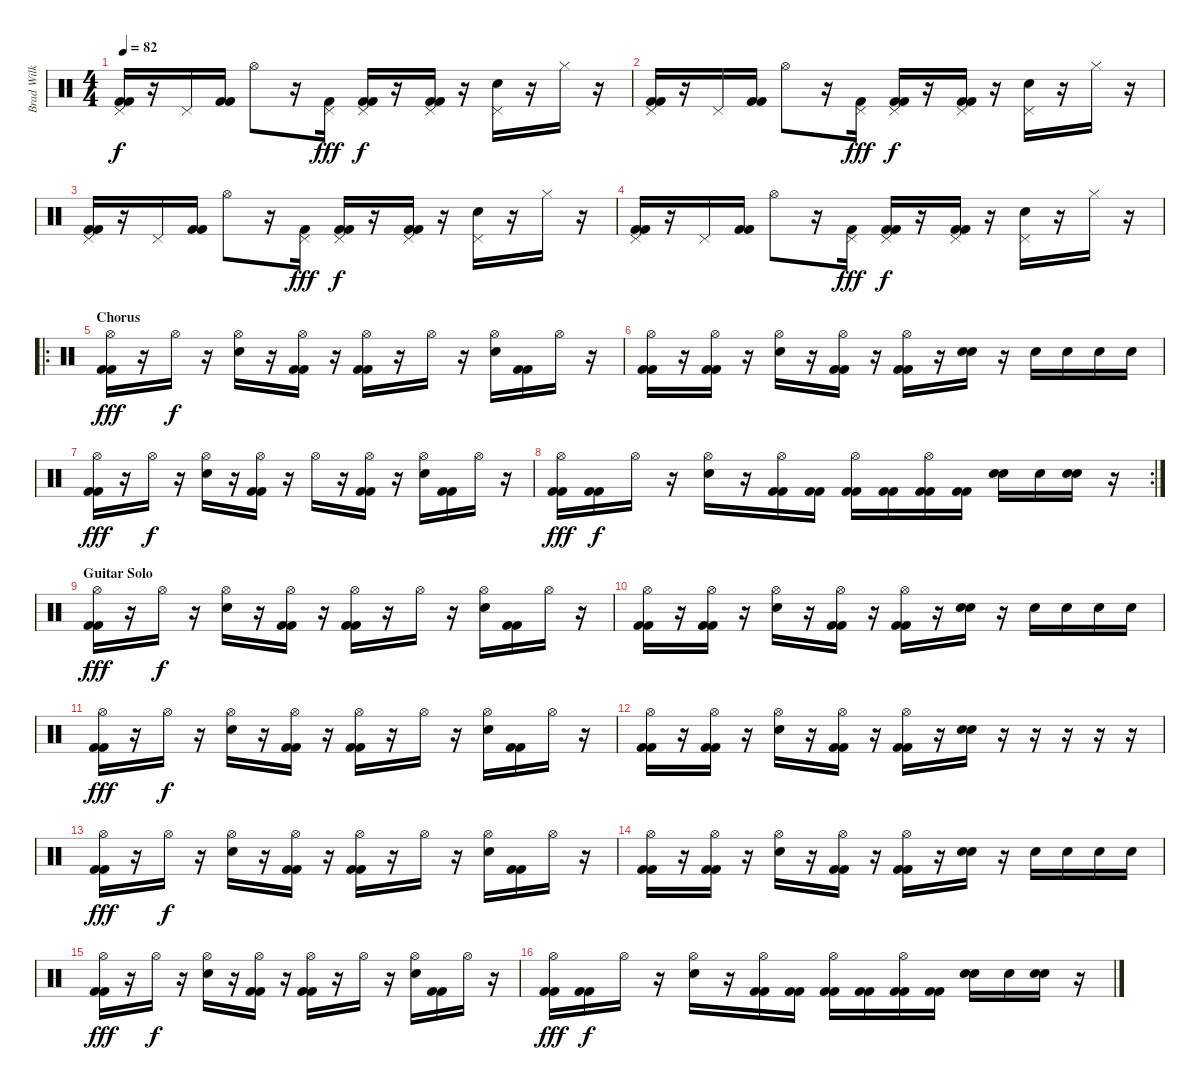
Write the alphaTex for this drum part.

\track ("Brad Wilk" "Brad Wilk") {instrument percussion}
\staff {score}
\articulation defaults
\ts (4 4)
\tempo 82
\clef neutral
\ks c
("Pedal Hi-Hat (hit)" "Kick (hit) 2" "Kick (hit) 2").16{dy f} r.16 "Pedal Hi-Hat (hit)".16 ("Kick (hit) 2" "Kick (hit) 2").16 "Hi-Hat (open)".8 r.16 ("Pedal Hi-Hat (hit)" "Kick (hit) 2").16{dy fff} ("Pedal Hi-Hat (hit)" "Kick (hit) 2" "Kick (hit) 2").16{dy f} r.16 ("Pedal Hi-Hat (hit)" "Kick (hit) 2" "Kick (hit) 2").16 r.16 ("Pedal Hi-Hat (hit)" "Snare (hit) 2").16 r.16 "Hi-Hat (closed)".16 r.16 |
("Pedal Hi-Hat (hit)" "Kick (hit) 2" "Kick (hit) 2").16 r.16 "Pedal Hi-Hat (hit)".16 ("Kick (hit) 2" "Kick (hit) 2").16 "Hi-Hat (open)".8 r.16 ("Pedal Hi-Hat (hit)" "Kick (hit) 2").16{dy fff} ("Pedal Hi-Hat (hit)" "Kick (hit) 2" "Kick (hit) 2").16{dy f} r.16 ("Pedal Hi-Hat (hit)" "Kick (hit) 2" "Kick (hit) 2").16 r.16 ("Pedal Hi-Hat (hit)" "Snare (hit) 2").16 r.16 "Hi-Hat (closed)".16 r.16 |
("Pedal Hi-Hat (hit)" "Kick (hit) 2" "Kick (hit) 2").16 r.16 "Pedal Hi-Hat (hit)".16 ("Kick (hit) 2" "Kick (hit) 2").16 "Hi-Hat (open)".8 r.16 ("Pedal Hi-Hat (hit)" "Kick (hit) 2").16{dy fff} ("Pedal Hi-Hat (hit)" "Kick (hit) 2" "Kick (hit) 2").16{dy f} r.16 ("Pedal Hi-Hat (hit)" "Kick (hit) 2" "Kick (hit) 2").16 r.16 ("Pedal Hi-Hat (hit)" "Snare (hit) 2").16 r.16 "Hi-Hat (closed)".16 r.16 |
("Pedal Hi-Hat (hit)" "Kick (hit) 2" "Kick (hit) 2").16 r.16 "Pedal Hi-Hat (hit)".16 ("Kick (hit) 2" "Kick (hit) 2").16 "Hi-Hat (open)".8 r.16 ("Pedal Hi-Hat (hit)" "Kick (hit) 2").16{dy fff} ("Pedal Hi-Hat (hit)" "Kick (hit) 2" "Kick (hit) 2").16{dy f} r.16 ("Pedal Hi-Hat (hit)" "Kick (hit) 2" "Kick (hit) 2").16 r.16 ("Pedal Hi-Hat (hit)" "Snare (hit) 2").16 r.16 "Hi-Hat (closed)".16 r.16 |
\ro
\section ("" "Chorus")
("Hi-Hat (open)" "Kick (hit) 2" "Kick (hit) 2").16{dy fff} r.16 "Hi-Hat (open)".16{dy f} r.16 ("Hi-Hat (open)" "Snare (hit) 2").16 r.16 ("Hi-Hat (open)" "Kick (hit) 2" "Kick (hit) 2").16 r.16 ("Hi-Hat (open)" "Kick (hit) 2" "Kick (hit) 2").16 r.16 "Hi-Hat (open)".16 r.16 ("Hi-Hat (open)" "Snare (hit) 2").16 ("Kick (hit) 2" "Kick (hit) 2").16 "Hi-Hat (open)".16 r.16 |
("Hi-Hat (open)" "Kick (hit) 2" "Kick (hit) 2").16 r.16 ("Hi-Hat (open)" "Kick (hit) 2" "Kick (hit) 2").16 r.16 ("Hi-Hat (open)" "Snare (hit) 2").16 r.16 ("Hi-Hat (open)" "Kick (hit) 2" "Kick (hit) 2").16 r.16 ("Hi-Hat (open)" "Kick (hit) 2" "Kick (hit) 2").16 r.16 ("Electric Snare (hit)" "Electric Snare (hit)").16{bd 240} r.16 "Electric Snare (hit)".16 "Electric Snare (hit)".16 "Electric Snare (hit)".16 "Electric Snare (hit)".16 |
("Hi-Hat (open)" "Kick (hit) 2" "Kick (hit) 2").16{dy fff} r.16 "Hi-Hat (open)".16{dy f} r.16 ("Hi-Hat (open)" "Snare (hit) 2").16 r.16 ("Hi-Hat (open)" "Kick (hit) 2" "Kick (hit) 2").16 r.16 "Hi-Hat (open)".16 r.16 ("Hi-Hat (open)" "Kick (hit) 2" "Kick (hit) 2").16 r.16 ("Hi-Hat (open)" "Snare (hit) 2").16 ("Kick (hit) 2" "Kick (hit) 2").16 "Hi-Hat (open)".16 r.16 |
\rc 2
("Hi-Hat (open)" "Kick (hit) 2" "Kick (hit) 2").16{dy fff} ("Kick (hit) 2" "Kick (hit) 2").16{dy f} "Hi-Hat (open)".16 r.16 ("Hi-Hat (open)" "Snare (hit) 2").16 r.16 ("Hi-Hat (open)" "Kick (hit) 2" "Kick (hit) 2").16 ("Kick (hit) 2" "Kick (hit) 2").16 ("Hi-Hat (open)" "Kick (hit) 2" "Kick (hit) 2").16 ("Kick (hit) 2" "Kick (hit) 2").16 ("Hi-Hat (open)" "Kick (hit) 2" "Kick (hit) 2").16 ("Kick (hit) 2" "Kick (hit) 2").16 ("Electric Snare (hit)" "Electric Snare (hit)").16{bd 240} "Electric Snare (hit)".16 ("Snare (hit) 2" "Snare (hit) 2").16 r.16 |
\section ("" "Guitar Solo")
("Hi-Hat (open)" "Kick (hit) 2" "Kick (hit) 2").16{dy fff} r.16 "Hi-Hat (open)".16{dy f} r.16 ("Hi-Hat (open)" "Snare (hit) 2").16 r.16 ("Hi-Hat (open)" "Kick (hit) 2" "Kick (hit) 2").16 r.16 ("Hi-Hat (open)" "Kick (hit) 2" "Kick (hit) 2").16 r.16 "Hi-Hat (open)".16 r.16 ("Hi-Hat (open)" "Snare (hit) 2").16 ("Kick (hit) 2" "Kick (hit) 2").16 "Hi-Hat (open)".16 r.16 |
("Hi-Hat (open)" "Kick (hit) 2" "Kick (hit) 2").16 r.16 ("Hi-Hat (open)" "Kick (hit) 2" "Kick (hit) 2").16 r.16 ("Hi-Hat (open)" "Snare (hit) 2").16 r.16 ("Hi-Hat (open)" "Kick (hit) 2" "Kick (hit) 2").16 r.16 ("Hi-Hat (open)" "Kick (hit) 2" "Kick (hit) 2").16 r.16 ("Electric Snare (hit)" "Electric Snare (hit)").16{bd 240} r.16 "Electric Snare (hit)".16 "Electric Snare (hit)".16 "Electric Snare (hit)".16 "Electric Snare (hit)".16 |
("Hi-Hat (open)" "Kick (hit) 2" "Kick (hit) 2").16{dy fff} r.16 "Hi-Hat (open)".16{dy f} r.16 ("Hi-Hat (open)" "Snare (hit) 2").16 r.16 ("Hi-Hat (open)" "Kick (hit) 2" "Kick (hit) 2").16 r.16 ("Hi-Hat (open)" "Kick (hit) 2" "Kick (hit) 2").16 r.16 "Hi-Hat (open)".16 r.16 ("Hi-Hat (open)" "Snare (hit) 2").16 ("Kick (hit) 2" "Kick (hit) 2").16 "Hi-Hat (open)".16 r.16 |
("Hi-Hat (open)" "Kick (hit) 2" "Kick (hit) 2").16 r.16 ("Hi-Hat (open)" "Kick (hit) 2" "Kick (hit) 2").16 r.16 ("Hi-Hat (open)" "Snare (hit) 2").16 r.16 ("Hi-Hat (open)" "Kick (hit) 2" "Kick (hit) 2").16 r.16 ("Hi-Hat (open)" "Kick (hit) 2" "Kick (hit) 2").16 r.16 ("Electric Snare (hit)" "Electric Snare (hit)").16{bd 240} r.16 r.16 r.16 r.16 r.16 |
("Hi-Hat (open)" "Kick (hit) 2" "Kick (hit) 2").16{dy fff} r.16 "Hi-Hat (open)".16{dy f} r.16 ("Hi-Hat (open)" "Snare (hit) 2").16 r.16 ("Hi-Hat (open)" "Kick (hit) 2" "Kick (hit) 2").16 r.16 ("Hi-Hat (open)" "Kick (hit) 2" "Kick (hit) 2").16 r.16 "Hi-Hat (open)".16 r.16 ("Hi-Hat (open)" "Snare (hit) 2").16 ("Kick (hit) 2" "Kick (hit) 2").16 "Hi-Hat (open)".16 r.16 |
("Hi-Hat (open)" "Kick (hit) 2" "Kick (hit) 2").16 r.16 ("Hi-Hat (open)" "Kick (hit) 2" "Kick (hit) 2").16 r.16 ("Hi-Hat (open)" "Snare (hit) 2").16 r.16 ("Hi-Hat (open)" "Kick (hit) 2" "Kick (hit) 2").16 r.16 ("Hi-Hat (open)" "Kick (hit) 2" "Kick (hit) 2").16 r.16 ("Electric Snare (hit)" "Electric Snare (hit)").16{bd 240} r.16 "Electric Snare (hit)".16 "Electric Snare (hit)".16 "Electric Snare (hit)".16 "Electric Snare (hit)".16 |
("Hi-Hat (open)" "Kick (hit) 2" "Kick (hit) 2").16{dy fff} r.16 "Hi-Hat (open)".16{dy f} r.16 ("Hi-Hat (open)" "Snare (hit) 2").16 r.16 ("Hi-Hat (open)" "Kick (hit) 2" "Kick (hit) 2").16 r.16 ("Hi-Hat (open)" "Kick (hit) 2" "Kick (hit) 2").16 r.16 "Hi-Hat (open)".16 r.16 ("Hi-Hat (open)" "Snare (hit) 2").16 ("Kick (hit) 2" "Kick (hit) 2").16 "Hi-Hat (open)".16 r.16 |
("Hi-Hat (open)" "Kick (hit) 2" "Kick (hit) 2").16{dy fff} ("Kick (hit) 2" "Kick (hit) 2").16{dy f} "Hi-Hat (open)".16 r.16 ("Hi-Hat (open)" "Snare (hit) 2").16 r.16 ("Hi-Hat (open)" "Kick (hit) 2" "Kick (hit) 2").16 ("Kick (hit) 2" "Kick (hit) 2").16 ("Hi-Hat (open)" "Kick (hit) 2" "Kick (hit) 2").16 ("Kick (hit) 2" "Kick (hit) 2").16 ("Hi-Hat (open)" "Kick (hit) 2" "Kick (hit) 2").16 ("Kick (hit) 2" "Kick (hit) 2").16 ("Electric Snare (hit)" "Electric Snare (hit)").16{bd 240} "Electric Snare (hit)".16 ("Snare (hit) 2" "Snare (hit) 2").16 r.16
